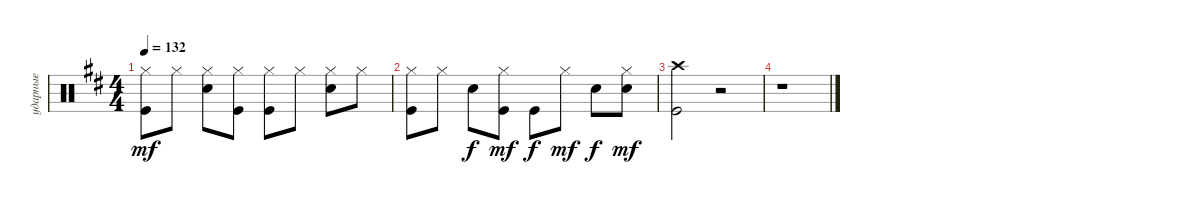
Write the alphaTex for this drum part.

\track ("ударные" "ударные") {instrument percussion}
\staff {score}
\articulation defaults
\ts (4 4)
\tempo 132
\clef neutral
\ks d
("Kick (hit)" "Hi-Hat (closed)").8{dy mf} "Hi-Hat (closed)".8 ("Snare (hit) 2" "Hi-Hat (closed)").8 ("Kick (hit)" "Hi-Hat (closed)").8 ("Kick (hit)" "Hi-Hat (closed)").8 "Hi-Hat (closed)".8 ("Snare (hit) 2" "Hi-Hat (closed)").8 "Hi-Hat (closed)".8 |
("Kick (hit)" "Hi-Hat (closed)").8 "Hi-Hat (closed)".8 "Snare (hit) 2".8{dy f} ("Kick (hit)" "Hi-Hat (closed)").8{dy mf} "Kick (hit)".8{dy f} "Hi-Hat (closed)".8{dy mf} "Snare (hit) 2".8{dy f} ("Hi-Hat (closed)" "Snare (hit) 2").8{dy mf} |
("Kick (hit)" "Crash high (hit)").2 r.2 |
r.1
